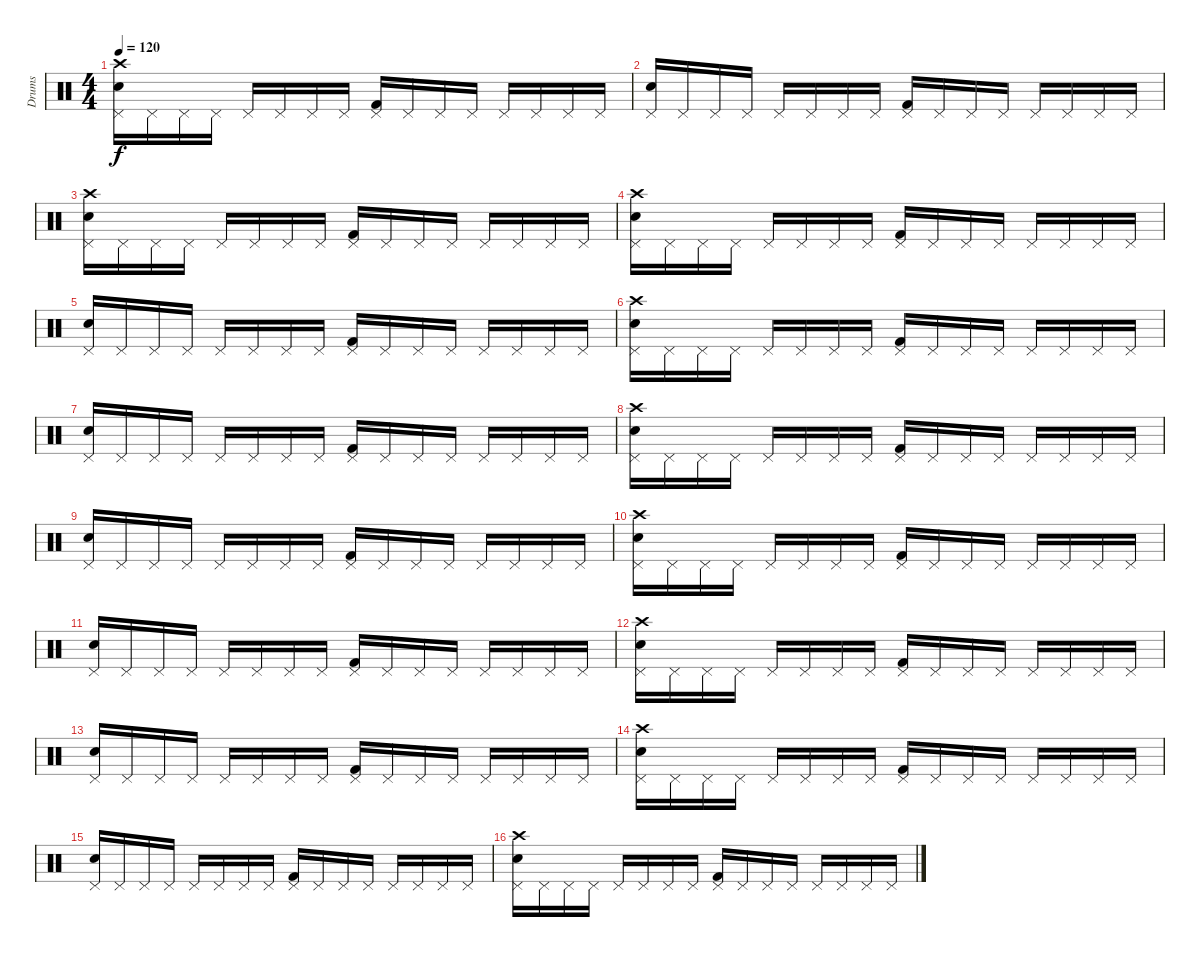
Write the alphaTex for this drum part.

\track ("Drums" "Drums") {instrument percussion}
\staff {score}
\articulation defaults
\ts (4 4)
\tempo 120
\clef neutral
\ks c
("Pedal Hi-Hat (hit)" "Snare (hit) 2" "Crash high (hit)").16{dy f} "Pedal Hi-Hat (hit)".16 "Pedal Hi-Hat (hit)".16 "Pedal Hi-Hat (hit)".16 "Pedal Hi-Hat (hit)".16 "Pedal Hi-Hat (hit)".16 "Pedal Hi-Hat (hit)".16 "Pedal Hi-Hat (hit)".16 ("Pedal Hi-Hat (hit)" "Kick (hit) 2").16 "Pedal Hi-Hat (hit)".16 "Pedal Hi-Hat (hit)".16 "Pedal Hi-Hat (hit)".16 "Pedal Hi-Hat (hit)".16 "Pedal Hi-Hat (hit)".16 "Pedal Hi-Hat (hit)".16 "Pedal Hi-Hat (hit)".16 |
("Pedal Hi-Hat (hit)" "Snare (hit) 2").16 "Pedal Hi-Hat (hit)".16 "Pedal Hi-Hat (hit)".16 "Pedal Hi-Hat (hit)".16 "Pedal Hi-Hat (hit)".16 "Pedal Hi-Hat (hit)".16 "Pedal Hi-Hat (hit)".16 "Pedal Hi-Hat (hit)".16 ("Pedal Hi-Hat (hit)" "Kick (hit) 2").16 "Pedal Hi-Hat (hit)".16 "Pedal Hi-Hat (hit)".16 "Pedal Hi-Hat (hit)".16 "Pedal Hi-Hat (hit)".16 "Pedal Hi-Hat (hit)".16 "Pedal Hi-Hat (hit)".16 "Pedal Hi-Hat (hit)".16 |
("Pedal Hi-Hat (hit)" "Snare (hit) 2" "Crash high (hit)").16 "Pedal Hi-Hat (hit)".16 "Pedal Hi-Hat (hit)".16 "Pedal Hi-Hat (hit)".16 "Pedal Hi-Hat (hit)".16 "Pedal Hi-Hat (hit)".16 "Pedal Hi-Hat (hit)".16 "Pedal Hi-Hat (hit)".16 ("Pedal Hi-Hat (hit)" "Kick (hit) 2").16 "Pedal Hi-Hat (hit)".16 "Pedal Hi-Hat (hit)".16 "Pedal Hi-Hat (hit)".16 "Pedal Hi-Hat (hit)".16 "Pedal Hi-Hat (hit)".16 "Pedal Hi-Hat (hit)".16 "Pedal Hi-Hat (hit)".16 |
("Pedal Hi-Hat (hit)" "Snare (hit) 2" "Crash high (hit)").16 "Pedal Hi-Hat (hit)".16 "Pedal Hi-Hat (hit)".16 "Pedal Hi-Hat (hit)".16 "Pedal Hi-Hat (hit)".16 "Pedal Hi-Hat (hit)".16 "Pedal Hi-Hat (hit)".16 "Pedal Hi-Hat (hit)".16 ("Pedal Hi-Hat (hit)" "Kick (hit) 2").16 "Pedal Hi-Hat (hit)".16 "Pedal Hi-Hat (hit)".16 "Pedal Hi-Hat (hit)".16 "Pedal Hi-Hat (hit)".16 "Pedal Hi-Hat (hit)".16 "Pedal Hi-Hat (hit)".16 "Pedal Hi-Hat (hit)".16 |
("Pedal Hi-Hat (hit)" "Snare (hit) 2").16 "Pedal Hi-Hat (hit)".16 "Pedal Hi-Hat (hit)".16 "Pedal Hi-Hat (hit)".16 "Pedal Hi-Hat (hit)".16 "Pedal Hi-Hat (hit)".16 "Pedal Hi-Hat (hit)".16 "Pedal Hi-Hat (hit)".16 ("Pedal Hi-Hat (hit)" "Kick (hit) 2").16 "Pedal Hi-Hat (hit)".16 "Pedal Hi-Hat (hit)".16 "Pedal Hi-Hat (hit)".16 "Pedal Hi-Hat (hit)".16 "Pedal Hi-Hat (hit)".16 "Pedal Hi-Hat (hit)".16 "Pedal Hi-Hat (hit)".16 |
("Pedal Hi-Hat (hit)" "Snare (hit) 2" "Crash high (hit)").16 "Pedal Hi-Hat (hit)".16 "Pedal Hi-Hat (hit)".16 "Pedal Hi-Hat (hit)".16 "Pedal Hi-Hat (hit)".16 "Pedal Hi-Hat (hit)".16 "Pedal Hi-Hat (hit)".16 "Pedal Hi-Hat (hit)".16 ("Pedal Hi-Hat (hit)" "Kick (hit) 2").16 "Pedal Hi-Hat (hit)".16 "Pedal Hi-Hat (hit)".16 "Pedal Hi-Hat (hit)".16 "Pedal Hi-Hat (hit)".16 "Pedal Hi-Hat (hit)".16 "Pedal Hi-Hat (hit)".16 "Pedal Hi-Hat (hit)".16 |
("Pedal Hi-Hat (hit)" "Snare (hit) 2").16 "Pedal Hi-Hat (hit)".16 "Pedal Hi-Hat (hit)".16 "Pedal Hi-Hat (hit)".16 "Pedal Hi-Hat (hit)".16 "Pedal Hi-Hat (hit)".16 "Pedal Hi-Hat (hit)".16 "Pedal Hi-Hat (hit)".16 ("Pedal Hi-Hat (hit)" "Kick (hit) 2").16 "Pedal Hi-Hat (hit)".16 "Pedal Hi-Hat (hit)".16 "Pedal Hi-Hat (hit)".16 "Pedal Hi-Hat (hit)".16 "Pedal Hi-Hat (hit)".16 "Pedal Hi-Hat (hit)".16 "Pedal Hi-Hat (hit)".16 |
("Pedal Hi-Hat (hit)" "Snare (hit) 2" "Crash high (hit)").16 "Pedal Hi-Hat (hit)".16 "Pedal Hi-Hat (hit)".16 "Pedal Hi-Hat (hit)".16 "Pedal Hi-Hat (hit)".16 "Pedal Hi-Hat (hit)".16 "Pedal Hi-Hat (hit)".16 "Pedal Hi-Hat (hit)".16 ("Pedal Hi-Hat (hit)" "Kick (hit) 2").16 "Pedal Hi-Hat (hit)".16 "Pedal Hi-Hat (hit)".16 "Pedal Hi-Hat (hit)".16 "Pedal Hi-Hat (hit)".16 "Pedal Hi-Hat (hit)".16 "Pedal Hi-Hat (hit)".16 "Pedal Hi-Hat (hit)".16 |
("Pedal Hi-Hat (hit)" "Snare (hit) 2").16 "Pedal Hi-Hat (hit)".16 "Pedal Hi-Hat (hit)".16 "Pedal Hi-Hat (hit)".16 "Pedal Hi-Hat (hit)".16 "Pedal Hi-Hat (hit)".16 "Pedal Hi-Hat (hit)".16 "Pedal Hi-Hat (hit)".16 ("Pedal Hi-Hat (hit)" "Kick (hit) 2").16 "Pedal Hi-Hat (hit)".16 "Pedal Hi-Hat (hit)".16 "Pedal Hi-Hat (hit)".16 "Pedal Hi-Hat (hit)".16 "Pedal Hi-Hat (hit)".16 "Pedal Hi-Hat (hit)".16 "Pedal Hi-Hat (hit)".16 |
("Pedal Hi-Hat (hit)" "Snare (hit) 2" "Crash high (hit)").16 "Pedal Hi-Hat (hit)".16 "Pedal Hi-Hat (hit)".16 "Pedal Hi-Hat (hit)".16 "Pedal Hi-Hat (hit)".16 "Pedal Hi-Hat (hit)".16 "Pedal Hi-Hat (hit)".16 "Pedal Hi-Hat (hit)".16 ("Pedal Hi-Hat (hit)" "Kick (hit) 2").16 "Pedal Hi-Hat (hit)".16 "Pedal Hi-Hat (hit)".16 "Pedal Hi-Hat (hit)".16 "Pedal Hi-Hat (hit)".16 "Pedal Hi-Hat (hit)".16 "Pedal Hi-Hat (hit)".16 "Pedal Hi-Hat (hit)".16 |
("Pedal Hi-Hat (hit)" "Snare (hit) 2").16 "Pedal Hi-Hat (hit)".16 "Pedal Hi-Hat (hit)".16 "Pedal Hi-Hat (hit)".16 "Pedal Hi-Hat (hit)".16 "Pedal Hi-Hat (hit)".16 "Pedal Hi-Hat (hit)".16 "Pedal Hi-Hat (hit)".16 ("Pedal Hi-Hat (hit)" "Kick (hit) 2").16 "Pedal Hi-Hat (hit)".16 "Pedal Hi-Hat (hit)".16 "Pedal Hi-Hat (hit)".16 "Pedal Hi-Hat (hit)".16 "Pedal Hi-Hat (hit)".16 "Pedal Hi-Hat (hit)".16 "Pedal Hi-Hat (hit)".16 |
("Pedal Hi-Hat (hit)" "Snare (hit) 2" "Crash high (hit)").16 "Pedal Hi-Hat (hit)".16 "Pedal Hi-Hat (hit)".16 "Pedal Hi-Hat (hit)".16 "Pedal Hi-Hat (hit)".16 "Pedal Hi-Hat (hit)".16 "Pedal Hi-Hat (hit)".16 "Pedal Hi-Hat (hit)".16 ("Pedal Hi-Hat (hit)" "Kick (hit) 2").16 "Pedal Hi-Hat (hit)".16 "Pedal Hi-Hat (hit)".16 "Pedal Hi-Hat (hit)".16 "Pedal Hi-Hat (hit)".16 "Pedal Hi-Hat (hit)".16 "Pedal Hi-Hat (hit)".16 "Pedal Hi-Hat (hit)".16 |
("Pedal Hi-Hat (hit)" "Snare (hit) 2").16 "Pedal Hi-Hat (hit)".16 "Pedal Hi-Hat (hit)".16 "Pedal Hi-Hat (hit)".16 "Pedal Hi-Hat (hit)".16 "Pedal Hi-Hat (hit)".16 "Pedal Hi-Hat (hit)".16 "Pedal Hi-Hat (hit)".16 ("Pedal Hi-Hat (hit)" "Kick (hit) 2").16 "Pedal Hi-Hat (hit)".16 "Pedal Hi-Hat (hit)".16 "Pedal Hi-Hat (hit)".16 "Pedal Hi-Hat (hit)".16 "Pedal Hi-Hat (hit)".16 "Pedal Hi-Hat (hit)".16 "Pedal Hi-Hat (hit)".16 |
("Pedal Hi-Hat (hit)" "Snare (hit) 2" "Crash high (hit)").16 "Pedal Hi-Hat (hit)".16 "Pedal Hi-Hat (hit)".16 "Pedal Hi-Hat (hit)".16 "Pedal Hi-Hat (hit)".16 "Pedal Hi-Hat (hit)".16 "Pedal Hi-Hat (hit)".16 "Pedal Hi-Hat (hit)".16 ("Pedal Hi-Hat (hit)" "Kick (hit) 2").16 "Pedal Hi-Hat (hit)".16 "Pedal Hi-Hat (hit)".16 "Pedal Hi-Hat (hit)".16 "Pedal Hi-Hat (hit)".16 "Pedal Hi-Hat (hit)".16 "Pedal Hi-Hat (hit)".16 "Pedal Hi-Hat (hit)".16 |
("Pedal Hi-Hat (hit)" "Snare (hit) 2").16 "Pedal Hi-Hat (hit)".16 "Pedal Hi-Hat (hit)".16 "Pedal Hi-Hat (hit)".16 "Pedal Hi-Hat (hit)".16 "Pedal Hi-Hat (hit)".16 "Pedal Hi-Hat (hit)".16 "Pedal Hi-Hat (hit)".16 ("Pedal Hi-Hat (hit)" "Kick (hit) 2").16 "Pedal Hi-Hat (hit)".16 "Pedal Hi-Hat (hit)".16 "Pedal Hi-Hat (hit)".16 "Pedal Hi-Hat (hit)".16 "Pedal Hi-Hat (hit)".16 "Pedal Hi-Hat (hit)".16 "Pedal Hi-Hat (hit)".16 |
("Pedal Hi-Hat (hit)" "Snare (hit) 2" "Crash high (hit)").16 "Pedal Hi-Hat (hit)".16 "Pedal Hi-Hat (hit)".16 "Pedal Hi-Hat (hit)".16 "Pedal Hi-Hat (hit)".16 "Pedal Hi-Hat (hit)".16 "Pedal Hi-Hat (hit)".16 "Pedal Hi-Hat (hit)".16 ("Pedal Hi-Hat (hit)" "Kick (hit) 2").16 "Pedal Hi-Hat (hit)".16 "Pedal Hi-Hat (hit)".16 "Pedal Hi-Hat (hit)".16 "Pedal Hi-Hat (hit)".16 "Pedal Hi-Hat (hit)".16 "Pedal Hi-Hat (hit)".16 "Pedal Hi-Hat (hit)".16
